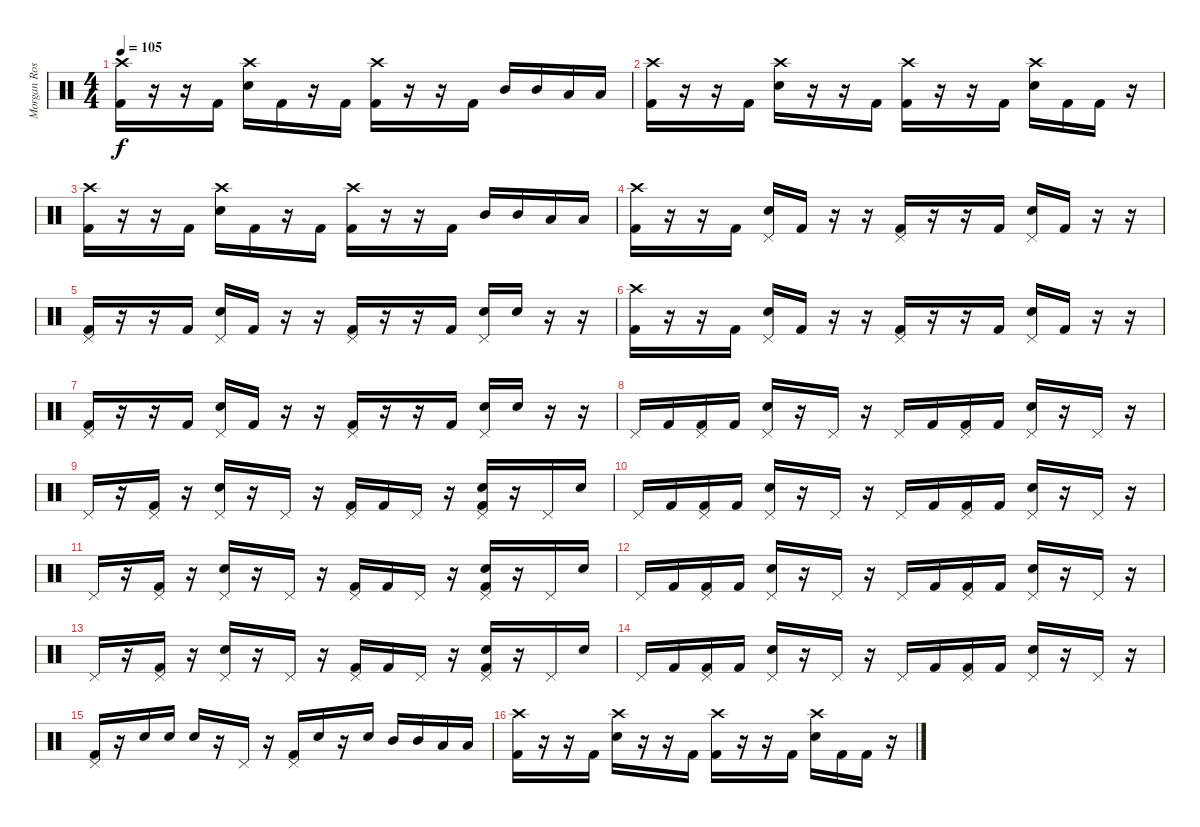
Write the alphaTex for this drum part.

\track ("Morgan Rose - Drums" "Morgan Ros") {instrument percussion}
\staff {score}
\articulation defaults
\ts (4 4)
\tempo 105
\clef neutral
\ks c
("Kick (hit) 2" "Crash high (hit)").16{dy f} r.16 r.16 "Kick (hit) 2".16 ("Snare (hit) 2" "Crash high (hit)").16 "Kick (hit) 2".16 r.16 "Kick (hit) 2".16 ("Kick (hit) 2" "Crash high (hit)").16 r.16 r.16 "Kick (hit) 2".16 "Mid Tom (hit)".16 "Mid Tom (hit)".16 "Low Tom (hit)".16 "Low Tom (hit)".16 |
("Kick (hit) 2" "Crash high (hit)").16 r.16 r.16 "Kick (hit) 2".16 ("Snare (hit) 2" "Crash high (hit)").16 r.16 r.16 "Kick (hit) 2".16 ("Kick (hit) 2" "Crash high (hit)").16 r.16 r.16 "Kick (hit) 2".16 ("Snare (hit) 2" "Crash high (hit)").16 "Kick (hit) 2".16 "Kick (hit) 2".16 r.16 |
("Kick (hit) 2" "Crash high (hit)").16 r.16 r.16 "Kick (hit) 2".16 ("Snare (hit) 2" "Crash high (hit)").16 "Kick (hit) 2".16 r.16 "Kick (hit) 2".16 ("Kick (hit) 2" "Crash high (hit)").16 r.16 r.16 "Kick (hit) 2".16 "Mid Tom (hit)".16 "Mid Tom (hit)".16 "Low Tom (hit)".16 "Low Tom (hit)".16 |
("Kick (hit) 2" "Crash high (hit)").16 r.16 r.16 "Kick (hit) 2".16 ("Snare (hit) 2" "Pedal Hi-Hat (hit)").16 "Kick (hit) 2".16 r.16 r.16 ("Kick (hit) 2" "Pedal Hi-Hat (hit)").16 r.16 r.16 "Kick (hit) 2".16 ("Snare (hit) 2" "Pedal Hi-Hat (hit)").16 "Kick (hit) 2".16 r.16 r.16 |
("Kick (hit) 2" "Pedal Hi-Hat (hit)").16 r.16 r.16 "Kick (hit) 2".16 ("Snare (hit) 2" "Pedal Hi-Hat (hit)").16 "Kick (hit) 2".16 r.16 r.16 ("Kick (hit) 2" "Pedal Hi-Hat (hit)").16 r.16 r.16 "Kick (hit) 2".16 ("Snare (hit) 2" "Pedal Hi-Hat (hit)").16 "Snare (hit) 2".16 r.16 r.16 |
("Kick (hit) 2" "Crash high (hit)").16 r.16 r.16 "Kick (hit) 2".16 ("Snare (hit) 2" "Pedal Hi-Hat (hit)").16 "Kick (hit) 2".16 r.16 r.16 ("Kick (hit) 2" "Pedal Hi-Hat (hit)").16 r.16 r.16 "Kick (hit) 2".16 ("Snare (hit) 2" "Pedal Hi-Hat (hit)").16 "Kick (hit) 2".16 r.16 r.16 |
("Kick (hit) 2" "Pedal Hi-Hat (hit)").16 r.16 r.16 "Kick (hit) 2".16 ("Snare (hit) 2" "Pedal Hi-Hat (hit)").16 "Kick (hit) 2".16 r.16 r.16 ("Kick (hit) 2" "Pedal Hi-Hat (hit)").16 r.16 r.16 "Kick (hit) 2".16 ("Snare (hit) 2" "Pedal Hi-Hat (hit)").16 "Snare (hit) 2".16 r.16 r.16 |
"Pedal Hi-Hat (hit)".16 "Kick (hit) 2".16 ("Kick (hit) 2" "Pedal Hi-Hat (hit)").16 "Kick (hit) 2".16 ("Snare (hit) 2" "Pedal Hi-Hat (hit)").16 r.16 "Pedal Hi-Hat (hit)".16 r.16 "Pedal Hi-Hat (hit)".16 "Kick (hit) 2".16 ("Kick (hit) 2" "Pedal Hi-Hat (hit)").16 "Kick (hit) 2".16 ("Snare (hit) 2" "Pedal Hi-Hat (hit)").16 r.16 "Pedal Hi-Hat (hit)".16 r.16 |
"Pedal Hi-Hat (hit)".16 r.16 ("Kick (hit) 2" "Pedal Hi-Hat (hit)").16 r.16 ("Snare (hit) 2" "Pedal Hi-Hat (hit)").16 r.16 "Pedal Hi-Hat (hit)".16 r.16 ("Kick (hit) 2" "Pedal Hi-Hat (hit)").16 "Kick (hit) 2".16 "Pedal Hi-Hat (hit)".16 r.16 ("Kick (hit) 2" "Snare (hit) 2" "Pedal Hi-Hat (hit)").16 r.16 "Pedal Hi-Hat (hit)".16 "Snare (hit) 2".16 |
"Pedal Hi-Hat (hit)".16 "Kick (hit) 2".16 ("Kick (hit) 2" "Pedal Hi-Hat (hit)").16 "Kick (hit) 2".16 ("Snare (hit) 2" "Pedal Hi-Hat (hit)").16 r.16 "Pedal Hi-Hat (hit)".16 r.16 "Pedal Hi-Hat (hit)".16 "Kick (hit) 2".16 ("Kick (hit) 2" "Pedal Hi-Hat (hit)").16 "Kick (hit) 2".16 ("Snare (hit) 2" "Pedal Hi-Hat (hit)").16 r.16 "Pedal Hi-Hat (hit)".16 r.16 |
"Pedal Hi-Hat (hit)".16 r.16 ("Kick (hit) 2" "Pedal Hi-Hat (hit)").16 r.16 ("Snare (hit) 2" "Pedal Hi-Hat (hit)").16 r.16 "Pedal Hi-Hat (hit)".16 r.16 ("Kick (hit) 2" "Pedal Hi-Hat (hit)").16 "Kick (hit) 2".16 "Pedal Hi-Hat (hit)".16 r.16 ("Kick (hit) 2" "Snare (hit) 2" "Pedal Hi-Hat (hit)").16 r.16 "Pedal Hi-Hat (hit)".16 "Snare (hit) 2".16 |
"Pedal Hi-Hat (hit)".16 "Kick (hit) 2".16 ("Kick (hit) 2" "Pedal Hi-Hat (hit)").16 "Kick (hit) 2".16 ("Snare (hit) 2" "Pedal Hi-Hat (hit)").16 r.16 "Pedal Hi-Hat (hit)".16 r.16 "Pedal Hi-Hat (hit)".16 "Kick (hit) 2".16 ("Kick (hit) 2" "Pedal Hi-Hat (hit)").16 "Kick (hit) 2".16 ("Snare (hit) 2" "Pedal Hi-Hat (hit)").16 r.16 "Pedal Hi-Hat (hit)".16 r.16 |
"Pedal Hi-Hat (hit)".16 r.16 ("Kick (hit) 2" "Pedal Hi-Hat (hit)").16 r.16 ("Snare (hit) 2" "Pedal Hi-Hat (hit)").16 r.16 "Pedal Hi-Hat (hit)".16 r.16 ("Kick (hit) 2" "Pedal Hi-Hat (hit)").16 "Kick (hit) 2".16 "Pedal Hi-Hat (hit)".16 r.16 ("Kick (hit) 2" "Snare (hit) 2" "Pedal Hi-Hat (hit)").16 r.16 "Pedal Hi-Hat (hit)".16 "Snare (hit) 2".16 |
"Pedal Hi-Hat (hit)".16 "Kick (hit) 2".16 ("Kick (hit) 2" "Pedal Hi-Hat (hit)").16 "Kick (hit) 2".16 ("Snare (hit) 2" "Pedal Hi-Hat (hit)").16 r.16 "Pedal Hi-Hat (hit)".16 r.16 "Pedal Hi-Hat (hit)".16 "Kick (hit) 2".16 ("Kick (hit) 2" "Pedal Hi-Hat (hit)").16 "Kick (hit) 2".16 ("Snare (hit) 2" "Pedal Hi-Hat (hit)").16 r.16 "Pedal Hi-Hat (hit)".16 r.16 |
("Kick (hit) 2" "Pedal Hi-Hat (hit)").16 r.16 "Snare (hit) 2".16 "Snare (hit) 2".16 "Snare (hit) 2".16 r.16 "Pedal Hi-Hat (hit)".16 r.16 ("Kick (hit) 2" "Pedal Hi-Hat (hit)").16 "Snare (hit) 2".16 r.16 "Snare (hit) 2".16 "Mid Tom (hit)".16 "Mid Tom (hit)".16 "Low Tom (hit)".16 "Low Tom (hit)".16 |
("Kick (hit) 2" "Crash high (hit)").16 r.16 r.16 "Kick (hit) 2".16 ("Snare (hit) 2" "Crash high (hit)").16 r.16 r.16 "Kick (hit) 2".16 ("Kick (hit) 2" "Crash high (hit)").16 r.16 r.16 "Kick (hit) 2".16 ("Snare (hit) 2" "Crash high (hit)").16 "Kick (hit) 2".16 "Kick (hit) 2".16 r.16
